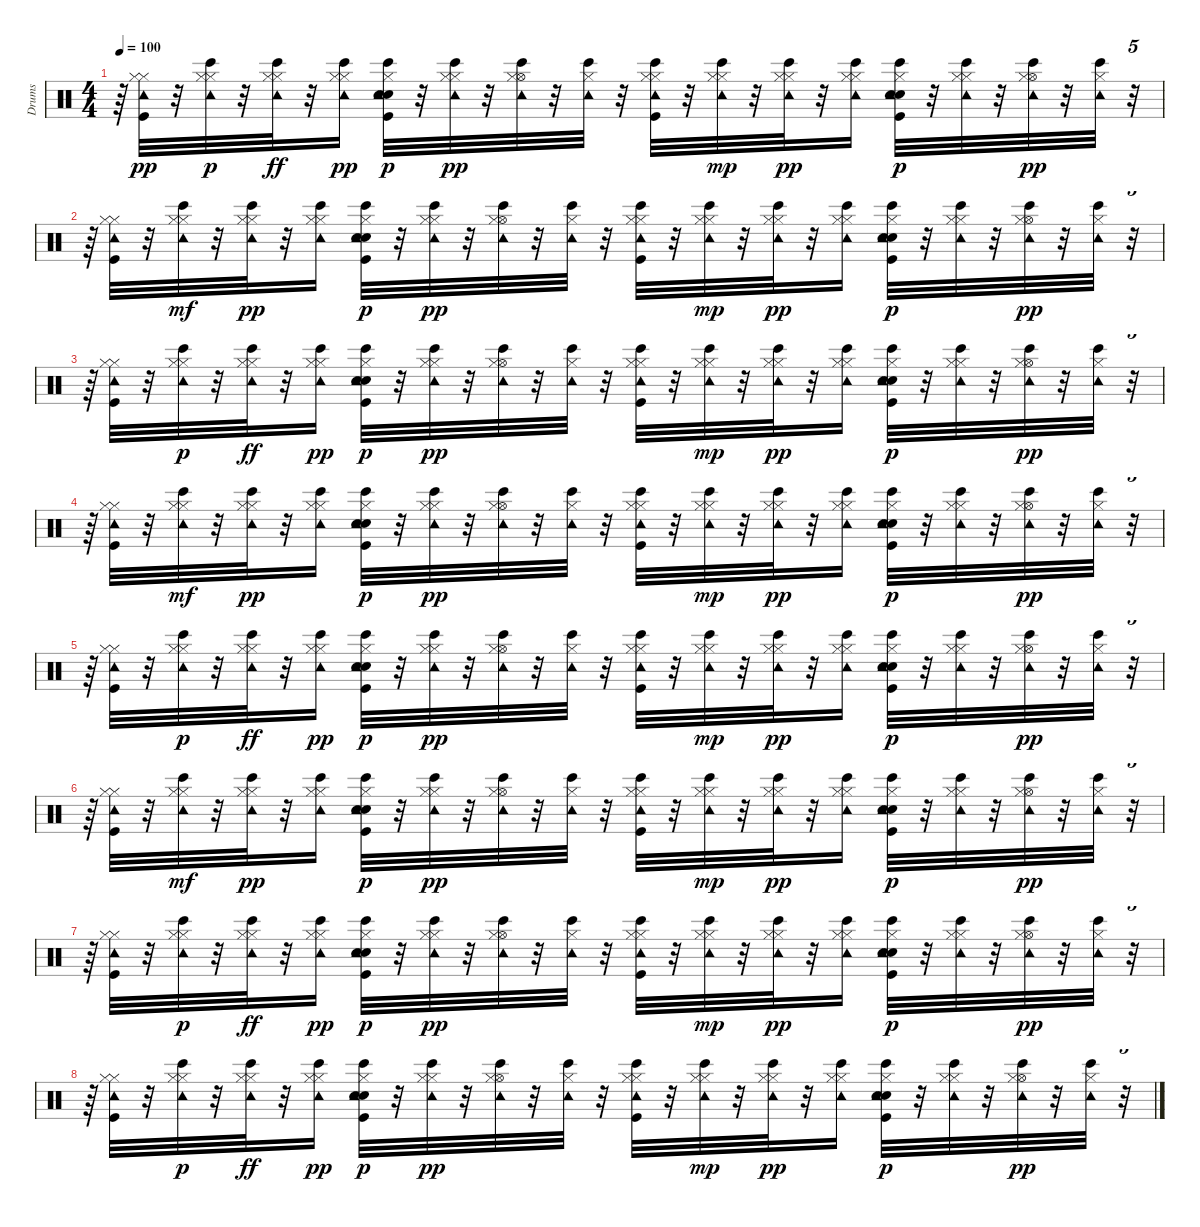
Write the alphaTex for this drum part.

\track ("Drums" "Drums") {instrument percussion}
\staff {score}
\articulation defaults
\ts (4 4)
\tempo 100
\clef neutral
\ks c
r.64{dy pp} ("Tambourine (hit)" "Kick (hit)" "Hi-Hat (closed)" "Hi-Hat (closed)").32 r.32 ("Bongo High (hit)" "Tambourine (hit)" "Hi-Hat (closed)" "Hi-Hat (closed)").32{dy p} r.32 ("Bongo High (hit)" "Tambourine (hit)" "Hi-Hat (closed)" "Hi-Hat (closed)").32{dy ff} r.32 ("Bongo High (hit)" "Tambourine (hit)" "Hi-Hat (closed)" "Hi-Hat (closed)").16{dy pp} ("Hand Clap (hit)" "Snare (hit) 2" "Bongo High (hit)" "Tambourine (hit)" "Kick (hit)" "Hi-Hat (closed)").32{dy p} r.32 ("Bongo High (hit)" "Tambourine (hit)" "Hi-Hat (closed)" "Hi-Hat (closed)").32{dy pp} r.32 ("Bongo High (hit)" "Tambourine (hit)" "Hi-Hat (open)" "Hi-Hat (closed)").32 r.32 ("Bongo High (hit)" "Tambourine (hit)" "Hi-Hat (closed)").32 r.32 ("Bongo High (hit)" "Tambourine (hit)" "Kick (hit)" "Hi-Hat (closed)" "Hi-Hat (closed)").32 r.32 ("Bongo High (hit)" "Tambourine (hit)" "Hi-Hat (closed)" "Hi-Hat (closed)").32{dy mp} r.32 ("Bongo High (hit)" "Tambourine (hit)" "Hi-Hat (closed)" "Hi-Hat (closed)").32{dy pp} r.32 ("Bongo High (hit)" "Tambourine (hit)" "Hi-Hat (closed)" "Hi-Hat (closed)").16 ("Hand Clap (hit)" "Snare (hit) 2" "Bongo High (hit)" "Tambourine (hit)" "Kick (hit)" "Hi-Hat (closed)").32{dy p} r.32 ("Bongo High (hit)" "Tambourine (hit)" "Hi-Hat (closed)" "Hi-Hat (closed)").32 r.32 ("Bongo High (hit)" "Tambourine (hit)" "Hi-Hat (open)" "Hi-Hat (closed)").32{dy pp} r.32 ("Bongo High (hit)" "Tambourine (hit)" "Hi-Hat (closed)").32 r.32{tu (5 4)} |
r.64 ("Tambourine (hit)" "Kick (hit)" "Hi-Hat (closed)" "Hi-Hat (closed)").32 r.32 ("Bongo High (hit)" "Tambourine (hit)" "Hi-Hat (closed)" "Hi-Hat (closed)").32{dy mf} r.32 ("Bongo High (hit)" "Tambourine (hit)" "Hi-Hat (closed)" "Hi-Hat (closed)").32{dy pp} r.32 ("Bongo High (hit)" "Tambourine (hit)" "Hi-Hat (closed)" "Hi-Hat (closed)").16 ("Hand Clap (hit)" "Snare (hit) 2" "Bongo High (hit)" "Tambourine (hit)" "Kick (hit)" "Hi-Hat (closed)").32{dy p} r.32 ("Bongo High (hit)" "Tambourine (hit)" "Hi-Hat (closed)" "Hi-Hat (closed)").32{dy pp} r.32 ("Bongo High (hit)" "Tambourine (hit)" "Hi-Hat (open)" "Hi-Hat (closed)").32 r.32 ("Bongo High (hit)" "Tambourine (hit)" "Hi-Hat (closed)").32 r.32 ("Bongo High (hit)" "Tambourine (hit)" "Kick (hit)" "Hi-Hat (closed)" "Hi-Hat (closed)").32 r.32 ("Bongo High (hit)" "Tambourine (hit)" "Hi-Hat (closed)" "Hi-Hat (closed)").32{dy mp} r.32 ("Bongo High (hit)" "Tambourine (hit)" "Hi-Hat (closed)" "Hi-Hat (closed)").32{dy pp} r.32 ("Bongo High (hit)" "Tambourine (hit)" "Hi-Hat (closed)" "Hi-Hat (closed)").16 ("Hand Clap (hit)" "Snare (hit) 2" "Bongo High (hit)" "Tambourine (hit)" "Kick (hit)" "Hi-Hat (closed)").32{dy p} r.32 ("Bongo High (hit)" "Tambourine (hit)" "Hi-Hat (closed)" "Hi-Hat (closed)").32 r.32 ("Bongo High (hit)" "Tambourine (hit)" "Hi-Hat (open)" "Hi-Hat (closed)").32{dy pp} r.32 ("Bongo High (hit)" "Tambourine (hit)" "Hi-Hat (closed)").32 r.32{tu (5 4)} |
r.64 ("Tambourine (hit)" "Kick (hit)" "Hi-Hat (closed)" "Hi-Hat (closed)").32 r.32 ("Bongo High (hit)" "Tambourine (hit)" "Hi-Hat (closed)" "Hi-Hat (closed)").32{dy p} r.32 ("Bongo High (hit)" "Tambourine (hit)" "Hi-Hat (closed)" "Hi-Hat (closed)").32{dy ff} r.32 ("Bongo High (hit)" "Tambourine (hit)" "Hi-Hat (closed)" "Hi-Hat (closed)").16{dy pp} ("Hand Clap (hit)" "Snare (hit) 2" "Bongo High (hit)" "Tambourine (hit)" "Kick (hit)" "Hi-Hat (closed)").32{dy p} r.32 ("Bongo High (hit)" "Tambourine (hit)" "Hi-Hat (closed)" "Hi-Hat (closed)").32{dy pp} r.32 ("Bongo High (hit)" "Tambourine (hit)" "Hi-Hat (open)" "Hi-Hat (closed)").32 r.32 ("Bongo High (hit)" "Tambourine (hit)" "Hi-Hat (closed)").32 r.32 ("Bongo High (hit)" "Tambourine (hit)" "Kick (hit)" "Hi-Hat (closed)" "Hi-Hat (closed)").32 r.32 ("Bongo High (hit)" "Tambourine (hit)" "Hi-Hat (closed)" "Hi-Hat (closed)").32{dy mp} r.32 ("Bongo High (hit)" "Tambourine (hit)" "Hi-Hat (closed)" "Hi-Hat (closed)").32{dy pp} r.32 ("Bongo High (hit)" "Tambourine (hit)" "Hi-Hat (closed)" "Hi-Hat (closed)").16 ("Hand Clap (hit)" "Snare (hit) 2" "Bongo High (hit)" "Tambourine (hit)" "Kick (hit)" "Hi-Hat (closed)").32{dy p} r.32 ("Bongo High (hit)" "Tambourine (hit)" "Hi-Hat (closed)" "Hi-Hat (closed)").32 r.32 ("Bongo High (hit)" "Tambourine (hit)" "Hi-Hat (open)" "Hi-Hat (closed)").32{dy pp} r.32 ("Bongo High (hit)" "Tambourine (hit)" "Hi-Hat (closed)").32 r.32{tu (5 4)} |
r.64 ("Tambourine (hit)" "Kick (hit)" "Hi-Hat (closed)" "Hi-Hat (closed)").32 r.32 ("Bongo High (hit)" "Tambourine (hit)" "Hi-Hat (closed)" "Hi-Hat (closed)").32{dy mf} r.32 ("Bongo High (hit)" "Tambourine (hit)" "Hi-Hat (closed)" "Hi-Hat (closed)").32{dy pp} r.32 ("Bongo High (hit)" "Tambourine (hit)" "Hi-Hat (closed)" "Hi-Hat (closed)").16 ("Hand Clap (hit)" "Snare (hit) 2" "Bongo High (hit)" "Tambourine (hit)" "Kick (hit)" "Hi-Hat (closed)").32{dy p} r.32 ("Bongo High (hit)" "Tambourine (hit)" "Hi-Hat (closed)" "Hi-Hat (closed)").32{dy pp} r.32 ("Bongo High (hit)" "Tambourine (hit)" "Hi-Hat (open)" "Hi-Hat (closed)").32 r.32 ("Bongo High (hit)" "Tambourine (hit)" "Hi-Hat (closed)").32 r.32 ("Bongo High (hit)" "Tambourine (hit)" "Kick (hit)" "Hi-Hat (closed)" "Hi-Hat (closed)").32 r.32 ("Bongo High (hit)" "Tambourine (hit)" "Hi-Hat (closed)" "Hi-Hat (closed)").32{dy mp} r.32 ("Bongo High (hit)" "Tambourine (hit)" "Hi-Hat (closed)" "Hi-Hat (closed)").32{dy pp} r.32 ("Bongo High (hit)" "Tambourine (hit)" "Hi-Hat (closed)" "Hi-Hat (closed)").16 ("Hand Clap (hit)" "Snare (hit) 2" "Bongo High (hit)" "Tambourine (hit)" "Kick (hit)" "Hi-Hat (closed)").32{dy p} r.32 ("Bongo High (hit)" "Tambourine (hit)" "Hi-Hat (closed)" "Hi-Hat (closed)").32 r.32 ("Bongo High (hit)" "Tambourine (hit)" "Hi-Hat (open)" "Hi-Hat (closed)").32{dy pp} r.32 ("Bongo High (hit)" "Tambourine (hit)" "Hi-Hat (closed)").32 r.32{tu (5 4)} |
r.64 ("Tambourine (hit)" "Kick (hit)" "Hi-Hat (closed)" "Hi-Hat (closed)").32 r.32 ("Bongo High (hit)" "Tambourine (hit)" "Hi-Hat (closed)" "Hi-Hat (closed)").32{dy p} r.32 ("Bongo High (hit)" "Tambourine (hit)" "Hi-Hat (closed)" "Hi-Hat (closed)").32{dy ff} r.32 ("Bongo High (hit)" "Tambourine (hit)" "Hi-Hat (closed)" "Hi-Hat (closed)").16{dy pp} ("Hand Clap (hit)" "Snare (hit) 2" "Bongo High (hit)" "Tambourine (hit)" "Kick (hit)" "Hi-Hat (closed)").32{dy p} r.32 ("Bongo High (hit)" "Tambourine (hit)" "Hi-Hat (closed)" "Hi-Hat (closed)").32{dy pp} r.32 ("Bongo High (hit)" "Tambourine (hit)" "Hi-Hat (open)" "Hi-Hat (closed)").32 r.32 ("Bongo High (hit)" "Tambourine (hit)" "Hi-Hat (closed)").32 r.32 ("Bongo High (hit)" "Tambourine (hit)" "Kick (hit)" "Hi-Hat (closed)" "Hi-Hat (closed)").32 r.32 ("Bongo High (hit)" "Tambourine (hit)" "Hi-Hat (closed)" "Hi-Hat (closed)").32{dy mp} r.32 ("Bongo High (hit)" "Tambourine (hit)" "Hi-Hat (closed)" "Hi-Hat (closed)").32{dy pp} r.32 ("Bongo High (hit)" "Tambourine (hit)" "Hi-Hat (closed)" "Hi-Hat (closed)").16 ("Hand Clap (hit)" "Snare (hit) 2" "Bongo High (hit)" "Tambourine (hit)" "Kick (hit)" "Hi-Hat (closed)").32{dy p} r.32 ("Bongo High (hit)" "Tambourine (hit)" "Hi-Hat (closed)" "Hi-Hat (closed)").32 r.32 ("Bongo High (hit)" "Tambourine (hit)" "Hi-Hat (open)" "Hi-Hat (closed)").32{dy pp} r.32 ("Bongo High (hit)" "Tambourine (hit)" "Hi-Hat (closed)").32 r.32{tu (5 4)} |
r.64 ("Tambourine (hit)" "Kick (hit)" "Hi-Hat (closed)" "Hi-Hat (closed)").32 r.32 ("Bongo High (hit)" "Tambourine (hit)" "Hi-Hat (closed)" "Hi-Hat (closed)").32{dy mf} r.32 ("Bongo High (hit)" "Tambourine (hit)" "Hi-Hat (closed)" "Hi-Hat (closed)").32{dy pp} r.32 ("Bongo High (hit)" "Tambourine (hit)" "Hi-Hat (closed)" "Hi-Hat (closed)").16 ("Hand Clap (hit)" "Snare (hit) 2" "Bongo High (hit)" "Tambourine (hit)" "Kick (hit)" "Hi-Hat (closed)").32{dy p} r.32 ("Bongo High (hit)" "Tambourine (hit)" "Hi-Hat (closed)" "Hi-Hat (closed)").32{dy pp} r.32 ("Bongo High (hit)" "Tambourine (hit)" "Hi-Hat (open)" "Hi-Hat (closed)").32 r.32 ("Bongo High (hit)" "Tambourine (hit)" "Hi-Hat (closed)").32 r.32 ("Bongo High (hit)" "Tambourine (hit)" "Kick (hit)" "Hi-Hat (closed)" "Hi-Hat (closed)").32 r.32 ("Bongo High (hit)" "Tambourine (hit)" "Hi-Hat (closed)" "Hi-Hat (closed)").32{dy mp} r.32 ("Bongo High (hit)" "Tambourine (hit)" "Hi-Hat (closed)" "Hi-Hat (closed)").32{dy pp} r.32 ("Bongo High (hit)" "Tambourine (hit)" "Hi-Hat (closed)" "Hi-Hat (closed)").16 ("Hand Clap (hit)" "Snare (hit) 2" "Bongo High (hit)" "Tambourine (hit)" "Kick (hit)" "Hi-Hat (closed)").32{dy p} r.32 ("Bongo High (hit)" "Tambourine (hit)" "Hi-Hat (closed)" "Hi-Hat (closed)").32 r.32 ("Bongo High (hit)" "Tambourine (hit)" "Hi-Hat (open)" "Hi-Hat (closed)").32{dy pp} r.32 ("Bongo High (hit)" "Tambourine (hit)" "Hi-Hat (closed)").32 r.32{tu (5 4)} |
r.64 ("Tambourine (hit)" "Kick (hit)" "Hi-Hat (closed)" "Hi-Hat (closed)").32 r.32 ("Bongo High (hit)" "Tambourine (hit)" "Hi-Hat (closed)" "Hi-Hat (closed)").32{dy p} r.32 ("Bongo High (hit)" "Tambourine (hit)" "Hi-Hat (closed)" "Hi-Hat (closed)").32{dy ff} r.32 ("Bongo High (hit)" "Tambourine (hit)" "Hi-Hat (closed)" "Hi-Hat (closed)").16{dy pp} ("Hand Clap (hit)" "Snare (hit) 2" "Bongo High (hit)" "Tambourine (hit)" "Kick (hit)" "Hi-Hat (closed)").32{dy p} r.32 ("Bongo High (hit)" "Tambourine (hit)" "Hi-Hat (closed)" "Hi-Hat (closed)").32{dy pp} r.32 ("Bongo High (hit)" "Tambourine (hit)" "Hi-Hat (open)" "Hi-Hat (closed)").32 r.32 ("Bongo High (hit)" "Tambourine (hit)" "Hi-Hat (closed)").32 r.32 ("Bongo High (hit)" "Tambourine (hit)" "Kick (hit)" "Hi-Hat (closed)" "Hi-Hat (closed)").32 r.32 ("Bongo High (hit)" "Tambourine (hit)" "Hi-Hat (closed)" "Hi-Hat (closed)").32{dy mp} r.32 ("Bongo High (hit)" "Tambourine (hit)" "Hi-Hat (closed)" "Hi-Hat (closed)").32{dy pp} r.32 ("Bongo High (hit)" "Tambourine (hit)" "Hi-Hat (closed)" "Hi-Hat (closed)").16 ("Hand Clap (hit)" "Snare (hit) 2" "Bongo High (hit)" "Tambourine (hit)" "Kick (hit)" "Hi-Hat (closed)").32{dy p} r.32 ("Bongo High (hit)" "Tambourine (hit)" "Hi-Hat (closed)" "Hi-Hat (closed)").32 r.32 ("Bongo High (hit)" "Tambourine (hit)" "Hi-Hat (open)" "Hi-Hat (closed)").32{dy pp} r.32 ("Bongo High (hit)" "Tambourine (hit)" "Hi-Hat (closed)").32 r.32{tu (5 4)} |
r.64 ("Tambourine (hit)" "Kick (hit)" "Hi-Hat (closed)" "Hi-Hat (closed)").32 r.32 ("Bongo High (hit)" "Tambourine (hit)" "Hi-Hat (closed)" "Hi-Hat (closed)").32{dy p} r.32 ("Bongo High (hit)" "Tambourine (hit)" "Hi-Hat (closed)" "Hi-Hat (closed)").32{dy ff} r.32 ("Bongo High (hit)" "Tambourine (hit)" "Hi-Hat (closed)" "Hi-Hat (closed)").16{dy pp} ("Hand Clap (hit)" "Snare (hit) 2" "Bongo High (hit)" "Tambourine (hit)" "Kick (hit)" "Hi-Hat (closed)").32{dy p} r.32 ("Bongo High (hit)" "Tambourine (hit)" "Hi-Hat (closed)" "Hi-Hat (closed)").32{dy pp} r.32 ("Bongo High (hit)" "Tambourine (hit)" "Hi-Hat (open)" "Hi-Hat (closed)").32 r.32 ("Bongo High (hit)" "Tambourine (hit)" "Hi-Hat (closed)").32 r.32 ("Bongo High (hit)" "Tambourine (hit)" "Kick (hit)" "Hi-Hat (closed)" "Hi-Hat (closed)").32 r.32 ("Bongo High (hit)" "Tambourine (hit)" "Hi-Hat (closed)" "Hi-Hat (closed)").32{dy mp} r.32 ("Bongo High (hit)" "Tambourine (hit)" "Hi-Hat (closed)" "Hi-Hat (closed)").32{dy pp} r.32 ("Bongo High (hit)" "Tambourine (hit)" "Hi-Hat (closed)" "Hi-Hat (closed)").16 ("Hand Clap (hit)" "Snare (hit) 2" "Bongo High (hit)" "Tambourine (hit)" "Kick (hit)" "Hi-Hat (closed)").32{dy p} r.32 ("Bongo High (hit)" "Tambourine (hit)" "Hi-Hat (closed)" "Hi-Hat (closed)").32 r.32 ("Bongo High (hit)" "Tambourine (hit)" "Hi-Hat (open)" "Hi-Hat (closed)").32{dy pp} r.32 ("Bongo High (hit)" "Tambourine (hit)" "Hi-Hat (closed)").32 r.32{tu (5 4)}
